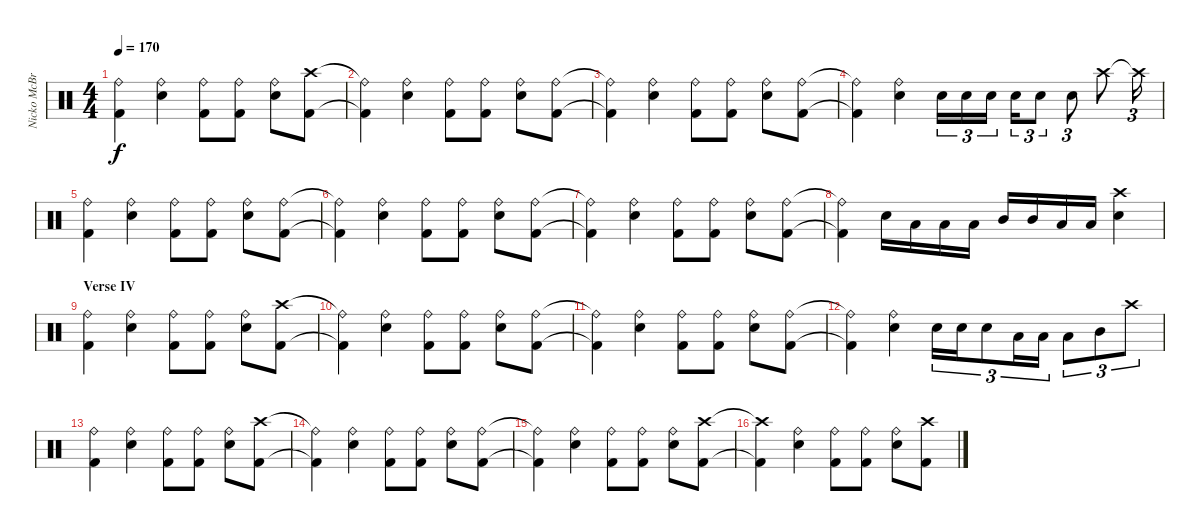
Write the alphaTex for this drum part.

\track ("Nicko McBrain" "Nicko McBr") {instrument percussion}
\staff {score}
\articulation defaults
\ts (4 4)
\tempo 170
\clef neutral
\ks c
("Ride (bell)" "Kick (hit) 2").4{dy f} ("Ride (bell)" "Snare (hit) 2").4 ("Ride (bell)" "Kick (hit) 2").8 ("Ride (bell)" "Kick (hit) 2").8 ("Ride (bell)" "Snare (hit) 2").8 ("Crash high (hit)" "Kick (hit) 2").8 |
("Ride (bell)"{t} "Kick (hit) 2"{t}).4 ("Ride (bell)" "Snare (hit) 2").4 ("Ride (bell)" "Kick (hit) 2").8 ("Ride (bell)" "Kick (hit) 2").8 ("Ride (bell)" "Snare (hit) 2").8 ("Ride (bell)" "Kick (hit) 2").8 |
("Ride (bell)"{t} "Kick (hit) 2"{t}).4 ("Ride (bell)" "Snare (hit) 2").4 ("Ride (bell)" "Kick (hit) 2").8 ("Ride (bell)" "Kick (hit) 2").8 ("Ride (bell)" "Snare (hit) 2").8 ("Ride (bell)" "Kick (hit) 2").8 |
("Ride (bell)"{t} "Kick (hit) 2"{t}).4 ("Ride (bell)" "Snare (hit) 2").4 "Snare (hit) 2".16{tu (3 2)} "Snare (hit) 2".16{tu (3 2)} "Snare (hit) 2".16{tu (3 2)} "Snare (hit) 2".16{tu (3 2)} "Snare (hit) 2".8{tu (3 2)} "Snare (hit) 2".8{tu (3 2)} "Crash high (hit)".8 "Crash high (hit)"{t}.16{tu (3 2)} |
("Ride (bell)" "Kick (hit) 2").4 ("Ride (bell)" "Snare (hit) 2").4 ("Ride (bell)" "Kick (hit) 2").8 ("Ride (bell)" "Kick (hit) 2").8 ("Ride (bell)" "Snare (hit) 2").8 ("Ride (bell)" "Kick (hit) 2").8 |
("Ride (bell)"{t} "Kick (hit) 2"{t}).4 ("Ride (bell)" "Snare (hit) 2").4 ("Ride (bell)" "Kick (hit) 2").8 ("Ride (bell)" "Kick (hit) 2").8 ("Ride (bell)" "Snare (hit) 2").8 ("Ride (bell)" "Kick (hit) 2").8 |
("Ride (bell)"{t} "Kick (hit) 2"{t}).4 ("Ride (bell)" "Snare (hit) 2").4 ("Ride (bell)" "Kick (hit) 2").8 ("Ride (bell)" "Kick (hit) 2").8 ("Ride (bell)" "Snare (hit) 2").8 ("Ride (bell)" "Kick (hit) 2").8 |
("Ride (bell)"{t} "Kick (hit) 2"{t}).4 "Snare (hit) 2".16 "Low Tom (hit)".16 "Low Tom (hit)".16 "Low Tom (hit)".16 "Mid Tom (hit)".16 "Mid Tom (hit)".16 "Low Tom (hit)".16 "Low Tom (hit)".16 ("Crash high (hit)" "Snare (hit) 2").4 |
\section ("" "Verse IV")
("Ride (bell)" "Kick (hit) 2").4 ("Ride (bell)" "Snare (hit) 2").4 ("Ride (bell)" "Kick (hit) 2").8 ("Ride (bell)" "Kick (hit) 2").8 ("Ride (bell)" "Snare (hit) 2").8 ("Crash high (hit)" "Kick (hit) 2").8 |
("Ride (bell)"{t} "Kick (hit) 2"{t}).4 ("Ride (bell)" "Snare (hit) 2").4 ("Ride (bell)" "Kick (hit) 2").8 ("Ride (bell)" "Kick (hit) 2").8 ("Ride (bell)" "Snare (hit) 2").8 ("Ride (bell)" "Kick (hit) 2").8 |
("Ride (bell)"{t} "Kick (hit) 2"{t}).4 ("Ride (bell)" "Snare (hit) 2").4 ("Ride (bell)" "Kick (hit) 2").8 ("Ride (bell)" "Kick (hit) 2").8 ("Ride (bell)" "Snare (hit) 2").8 ("Ride (bell)" "Kick (hit) 2").8 |
("Ride (bell)"{t} "Kick (hit) 2"{t}).4 ("Ride (bell)" "Snare (hit) 2").4 "Snare (hit) 2".16{tu (3 2)} "Snare (hit) 2".16{tu (3 2)} "Snare (hit) 2".8{tu (3 2)} "Low Tom (hit)".16{tu (3 2)} "Low Tom (hit)".16{tu (3 2)} "Low Tom (hit)".8{tu (3 2)} "Mid Tom (hit)".8{tu (3 2)} "Crash high (hit)".8{tu (3 2)} |
("Ride (bell)" "Kick (hit) 2").4 ("Ride (bell)" "Snare (hit) 2").4 ("Ride (bell)" "Kick (hit) 2").8 ("Ride (bell)" "Kick (hit) 2").8 ("Ride (bell)" "Snare (hit) 2").8 ("Crash high (hit)" "Kick (hit) 2").8 |
("Ride (bell)"{t} "Kick (hit) 2"{t}).4 ("Ride (bell)" "Snare (hit) 2").4 ("Ride (bell)" "Kick (hit) 2").8 ("Ride (bell)" "Kick (hit) 2").8 ("Ride (bell)" "Snare (hit) 2").8 ("Ride (bell)" "Kick (hit) 2").8 |
("Ride (bell)"{t} "Kick (hit) 2"{t}).4 ("Ride (bell)" "Snare (hit) 2").4 ("Ride (bell)" "Kick (hit) 2").8 ("Ride (bell)" "Kick (hit) 2").8 ("Ride (bell)" "Snare (hit) 2").8 ("Crash high (hit)" "Kick (hit) 2").8 |
("Crash high (hit)"{t} "Kick (hit) 2"{t}).4 ("Ride (bell)" "Snare (hit) 2").4 ("Ride (bell)" "Kick (hit) 2").8 ("Ride (bell)" "Kick (hit) 2").8 ("Ride (bell)" "Snare (hit) 2").8 ("Crash high (hit)" "Kick (hit) 2").8
